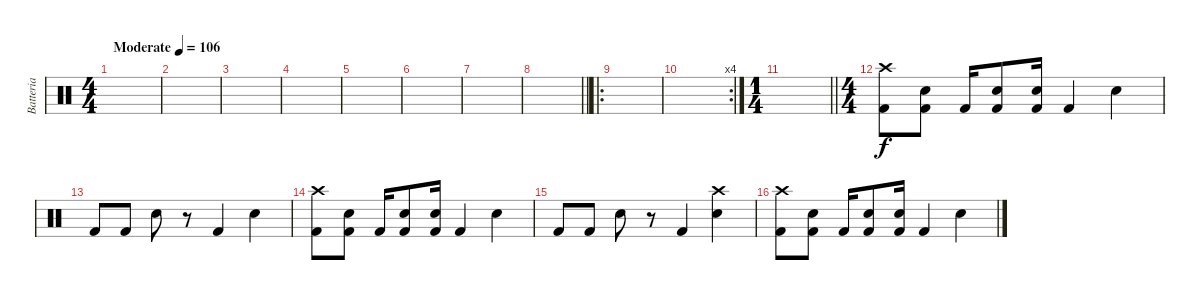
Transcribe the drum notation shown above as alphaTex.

\track ("Batteria" "Batteria") {instrument percussion}
\staff {score}
\articulation defaults
\ts (4 4)
\tempo (106 "Moderate")
\clef neutral
\ks c
|
|
|
|
|
|
|
\barLineRight lightlight
|
\ro
|
\rc 4
|
\ts (1 4)
\barLineRight lightlight
|
\ts (4 4)
("Crash high (hit)" "Kick (hit) 2").8 ("Electric Snare (hit)" "Kick (hit) 2").8 "Kick (hit) 2".16 ("Electric Snare (hit)" "Kick (hit) 2").8 ("Electric Snare (hit)" "Kick (hit) 2").16 "Kick (hit) 2".4 "Electric Snare (hit)".4 |
"Kick (hit) 2".8 "Kick (hit) 2".8 "Electric Snare (hit)".8 r.8 "Kick (hit) 2".4 "Electric Snare (hit)".4 |
("Crash high (hit)" "Kick (hit) 2").8 ("Electric Snare (hit)" "Kick (hit) 2").8 "Kick (hit) 2".16 ("Electric Snare (hit)" "Kick (hit) 2").8 ("Electric Snare (hit)" "Kick (hit) 2").16 "Kick (hit) 2".4 "Electric Snare (hit)".4 |
"Kick (hit) 2".8 "Kick (hit) 2".8 "Electric Snare (hit)".8 r.8 "Kick (hit) 2".4 ("Electric Snare (hit)" "Crash high (hit)").4 |
("Crash high (hit)" "Kick (hit) 2").8 ("Electric Snare (hit)" "Kick (hit) 2").8 "Kick (hit) 2".16 ("Electric Snare (hit)" "Kick (hit) 2").8 ("Electric Snare (hit)" "Kick (hit) 2").16 "Kick (hit) 2".4 "Electric Snare (hit)".4
